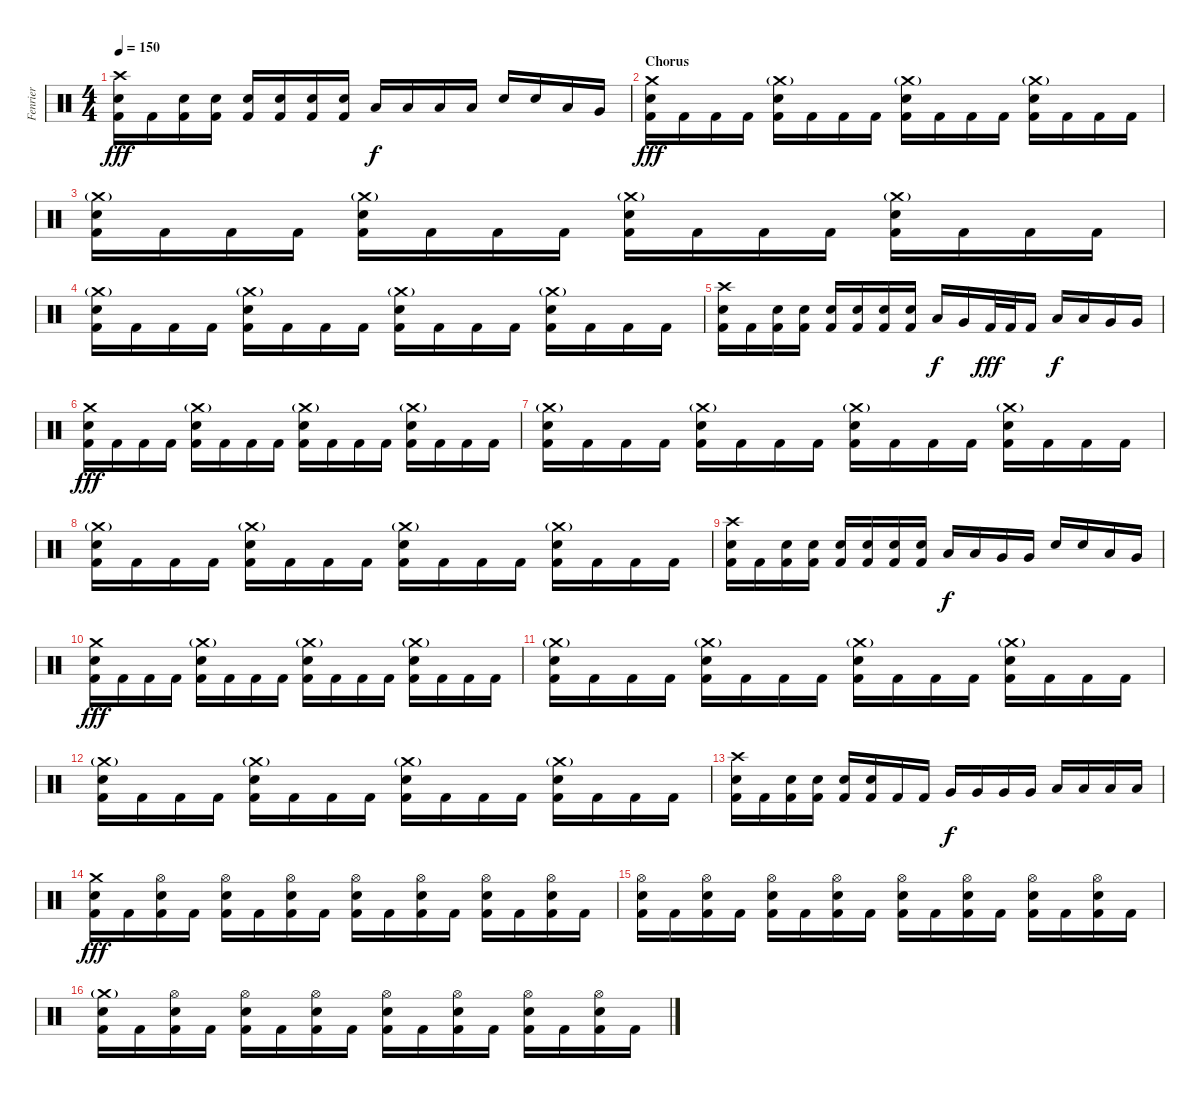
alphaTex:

\track ("Fenrier" "Fenrier") {instrument percussion}
\staff {score}
\articulation defaults
\ts (4 4)
\tempo 150
\clef neutral
\ks c
("Crash high (hit)" "Electric Snare (hit)" "Kick (hit) 2").16{dy fff} "Kick (hit) 2".16 ("Electric Snare (hit)" "Kick (hit) 2").16 ("Electric Snare (hit)" "Kick (hit) 2").16 ("Electric Snare (hit)" "Kick (hit) 2").16 ("Electric Snare (hit)" "Kick (hit) 2").16 ("Electric Snare (hit)" "Kick (hit) 2").16 ("Electric Snare (hit)" "Kick (hit) 2").16 "Low Tom (hit)".16{dy f} "Low Tom (hit)".16 "Low Tom (hit)".16 "Low Tom (hit)".16 "Electric Snare (hit)".16 "Electric Snare (hit)".16 "Low Tom (hit)".16 "Very Low Tom (hit)".16 |
\section ("" "Chorus")
("Crash medium (hit)" "Electric Snare (hit)" "Kick (hit) 2").16{dy fff} "Kick (hit) 2".16 "Kick (hit) 2".16 "Kick (hit) 2".16 ("Crash medium (hit)"{g} "Electric Snare (hit)" "Kick (hit) 2").16 "Kick (hit) 2".16 "Kick (hit) 2".16 "Kick (hit) 2".16 ("Crash medium (hit)"{g} "Electric Snare (hit)" "Kick (hit) 2").16 "Kick (hit) 2".16 "Kick (hit) 2".16 "Kick (hit) 2".16 ("Crash medium (hit)"{g} "Electric Snare (hit)" "Kick (hit) 2").16 "Kick (hit) 2".16 "Kick (hit) 2".16 "Kick (hit) 2".16 |
("Crash medium (hit)"{g} "Electric Snare (hit)" "Kick (hit) 2").16 "Kick (hit) 2".16 "Kick (hit) 2".16 "Kick (hit) 2".16 ("Crash medium (hit)"{g} "Electric Snare (hit)" "Kick (hit) 2").16 "Kick (hit) 2".16 "Kick (hit) 2".16 "Kick (hit) 2".16 ("Crash medium (hit)"{g} "Electric Snare (hit)" "Kick (hit) 2").16 "Kick (hit) 2".16 "Kick (hit) 2".16 "Kick (hit) 2".16 ("Crash medium (hit)"{g} "Electric Snare (hit)" "Kick (hit) 2").16 "Kick (hit) 2".16 "Kick (hit) 2".16 "Kick (hit) 2".16 |
("Crash medium (hit)"{g} "Electric Snare (hit)" "Kick (hit) 2").16 "Kick (hit) 2".16 "Kick (hit) 2".16 "Kick (hit) 2".16 ("Crash medium (hit)"{g} "Electric Snare (hit)" "Kick (hit) 2").16 "Kick (hit) 2".16 "Kick (hit) 2".16 "Kick (hit) 2".16 ("Crash medium (hit)"{g} "Electric Snare (hit)" "Kick (hit) 2").16 "Kick (hit) 2".16 "Kick (hit) 2".16 "Kick (hit) 2".16 ("Crash medium (hit)"{g} "Electric Snare (hit)" "Kick (hit) 2").16 "Kick (hit) 2".16 "Kick (hit) 2".16 "Kick (hit) 2".16 |
("Crash high (hit)" "Electric Snare (hit)" "Kick (hit) 2").16 "Kick (hit) 2".16 ("Electric Snare (hit)" "Kick (hit) 2").16 ("Electric Snare (hit)" "Kick (hit) 2").16 ("Electric Snare (hit)" "Kick (hit) 2").16 ("Electric Snare (hit)" "Kick (hit) 2").16 ("Electric Snare (hit)" "Kick (hit) 2").16 ("Electric Snare (hit)" "Kick (hit) 2").16 "Low Tom (hit)".16{dy f} "Very Low Tom (hit)".16 "Kick (hit) 2".32{dy fff} "Kick (hit) 2".32 "Kick (hit) 2".16 "Low Tom (hit)".16{dy f} "Low Tom (hit)".16 "Very Low Tom (hit)".16 "Very Low Tom (hit)".16 |
("Crash medium (hit)" "Electric Snare (hit)" "Kick (hit) 2").16{dy fff} "Kick (hit) 2".16 "Kick (hit) 2".16 "Kick (hit) 2".16 ("Crash medium (hit)"{g} "Electric Snare (hit)" "Kick (hit) 2").16 "Kick (hit) 2".16 "Kick (hit) 2".16 "Kick (hit) 2".16 ("Crash medium (hit)"{g} "Electric Snare (hit)" "Kick (hit) 2").16 "Kick (hit) 2".16 "Kick (hit) 2".16 "Kick (hit) 2".16 ("Crash medium (hit)"{g} "Electric Snare (hit)" "Kick (hit) 2").16 "Kick (hit) 2".16 "Kick (hit) 2".16 "Kick (hit) 2".16 |
("Crash medium (hit)"{g} "Electric Snare (hit)" "Kick (hit) 2").16 "Kick (hit) 2".16 "Kick (hit) 2".16 "Kick (hit) 2".16 ("Crash medium (hit)"{g} "Electric Snare (hit)" "Kick (hit) 2").16 "Kick (hit) 2".16 "Kick (hit) 2".16 "Kick (hit) 2".16 ("Crash medium (hit)"{g} "Electric Snare (hit)" "Kick (hit) 2").16 "Kick (hit) 2".16 "Kick (hit) 2".16 "Kick (hit) 2".16 ("Crash medium (hit)"{g} "Electric Snare (hit)" "Kick (hit) 2").16 "Kick (hit) 2".16 "Kick (hit) 2".16 "Kick (hit) 2".16 |
("Crash medium (hit)"{g} "Electric Snare (hit)" "Kick (hit) 2").16 "Kick (hit) 2".16 "Kick (hit) 2".16 "Kick (hit) 2".16 ("Crash medium (hit)"{g} "Electric Snare (hit)" "Kick (hit) 2").16 "Kick (hit) 2".16 "Kick (hit) 2".16 "Kick (hit) 2".16 ("Crash medium (hit)"{g} "Electric Snare (hit)" "Kick (hit) 2").16 "Kick (hit) 2".16 "Kick (hit) 2".16 "Kick (hit) 2".16 ("Crash medium (hit)"{g} "Electric Snare (hit)" "Kick (hit) 2").16 "Kick (hit) 2".16 "Kick (hit) 2".16 "Kick (hit) 2".16 |
("Crash high (hit)" "Electric Snare (hit)" "Kick (hit) 2").16 "Kick (hit) 2".16 ("Electric Snare (hit)" "Kick (hit) 2").16 ("Electric Snare (hit)" "Kick (hit) 2").16 ("Electric Snare (hit)" "Kick (hit) 2").16 ("Electric Snare (hit)" "Kick (hit) 2").16 ("Electric Snare (hit)" "Kick (hit) 2").16 ("Electric Snare (hit)" "Kick (hit) 2").16 "Low Tom (hit)".16{dy f} "Low Tom (hit)".16 "Very Low Tom (hit)".16 "Very Low Tom (hit)".16 "Electric Snare (hit)".16 "Electric Snare (hit)".16 "Low Tom (hit)".16 "Very Low Tom (hit)".16 |
("Crash medium (hit)" "Electric Snare (hit)" "Kick (hit) 2").16{dy fff} "Kick (hit) 2".16 "Kick (hit) 2".16 "Kick (hit) 2".16 ("Crash medium (hit)"{g} "Electric Snare (hit)" "Kick (hit) 2").16 "Kick (hit) 2".16 "Kick (hit) 2".16 "Kick (hit) 2".16 ("Crash medium (hit)"{g} "Electric Snare (hit)" "Kick (hit) 2").16 "Kick (hit) 2".16 "Kick (hit) 2".16 "Kick (hit) 2".16 ("Crash medium (hit)"{g} "Electric Snare (hit)" "Kick (hit) 2").16 "Kick (hit) 2".16 "Kick (hit) 2".16 "Kick (hit) 2".16 |
("Crash medium (hit)"{g} "Electric Snare (hit)" "Kick (hit) 2").16 "Kick (hit) 2".16 "Kick (hit) 2".16 "Kick (hit) 2".16 ("Crash medium (hit)"{g} "Electric Snare (hit)" "Kick (hit) 2").16 "Kick (hit) 2".16 "Kick (hit) 2".16 "Kick (hit) 2".16 ("Crash medium (hit)"{g} "Electric Snare (hit)" "Kick (hit) 2").16 "Kick (hit) 2".16 "Kick (hit) 2".16 "Kick (hit) 2".16 ("Crash medium (hit)"{g} "Electric Snare (hit)" "Kick (hit) 2").16 "Kick (hit) 2".16 "Kick (hit) 2".16 "Kick (hit) 2".16 |
("Crash medium (hit)"{g} "Electric Snare (hit)" "Kick (hit) 2").16 "Kick (hit) 2".16 "Kick (hit) 2".16 "Kick (hit) 2".16 ("Crash medium (hit)"{g} "Electric Snare (hit)" "Kick (hit) 2").16 "Kick (hit) 2".16 "Kick (hit) 2".16 "Kick (hit) 2".16 ("Crash medium (hit)"{g} "Electric Snare (hit)" "Kick (hit) 2").16 "Kick (hit) 2".16 "Kick (hit) 2".16 "Kick (hit) 2".16 ("Crash medium (hit)"{g} "Electric Snare (hit)" "Kick (hit) 2").16 "Kick (hit) 2".16 "Kick (hit) 2".16 "Kick (hit) 2".16 |
("Crash high (hit)" "Electric Snare (hit)" "Kick (hit) 2").16 "Kick (hit) 2".16 ("Electric Snare (hit)" "Kick (hit) 2").16 ("Electric Snare (hit)" "Kick (hit) 2").16 ("Electric Snare (hit)" "Kick (hit) 2").16 ("Electric Snare (hit)" "Kick (hit) 2").16 "Kick (hit) 2".16 "Kick (hit) 2".16 "Very Low Tom (hit)".16{dy f} "Very Low Tom (hit)".16 "Very Low Tom (hit)".16 "Very Low Tom (hit)".16 "Low Floor Tom (hit)".16 "Low Floor Tom (hit)".16 "Low Floor Tom (hit)".16 "Low Floor Tom (hit)".16 |
("Crash medium (hit)" "Electric Snare (hit)" "Kick (hit) 2").16{dy fff} "Kick (hit) 2".16 ("Hi-Hat (open)" "Electric Snare (hit)" "Kick (hit) 2").16 "Kick (hit) 2".16 ("Hi-Hat (open)" "Electric Snare (hit)" "Kick (hit) 2").16 "Kick (hit) 2".16 ("Hi-Hat (open)" "Electric Snare (hit)" "Kick (hit) 2").16 "Kick (hit) 2".16 ("Hi-Hat (open)" "Electric Snare (hit)" "Kick (hit) 2").16 "Kick (hit) 2".16 ("Hi-Hat (open)" "Electric Snare (hit)" "Kick (hit) 2").16 "Kick (hit) 2".16 ("Hi-Hat (open)" "Electric Snare (hit)" "Kick (hit) 2").16 "Kick (hit) 2".16 ("Hi-Hat (open)" "Electric Snare (hit)" "Kick (hit) 2").16 "Kick (hit) 2".16 |
("Hi-Hat (open)" "Electric Snare (hit)" "Kick (hit) 2").16 "Kick (hit) 2".16 ("Hi-Hat (open)" "Electric Snare (hit)" "Kick (hit) 2").16 "Kick (hit) 2".16 ("Hi-Hat (open)" "Electric Snare (hit)" "Kick (hit) 2").16 "Kick (hit) 2".16 ("Hi-Hat (open)" "Electric Snare (hit)" "Kick (hit) 2").16 "Kick (hit) 2".16 ("Hi-Hat (open)" "Electric Snare (hit)" "Kick (hit) 2").16 "Kick (hit) 2".16 ("Hi-Hat (open)" "Electric Snare (hit)" "Kick (hit) 2").16 "Kick (hit) 2".16 ("Hi-Hat (open)" "Electric Snare (hit)" "Kick (hit) 2").16 "Kick (hit) 2".16 ("Hi-Hat (open)" "Electric Snare (hit)" "Kick (hit) 2").16 "Kick (hit) 2".16 |
("Crash medium (hit)"{g} "Electric Snare (hit)" "Kick (hit) 2").16 "Kick (hit) 2".16 ("Hi-Hat (open)" "Electric Snare (hit)" "Kick (hit) 2").16 "Kick (hit) 2".16 ("Hi-Hat (open)" "Electric Snare (hit)" "Kick (hit) 2").16 "Kick (hit) 2".16 ("Hi-Hat (open)" "Electric Snare (hit)" "Kick (hit) 2").16 "Kick (hit) 2".16 ("Hi-Hat (open)" "Electric Snare (hit)" "Kick (hit) 2").16 "Kick (hit) 2".16 ("Hi-Hat (open)" "Electric Snare (hit)" "Kick (hit) 2").16 "Kick (hit) 2".16 ("Hi-Hat (open)" "Electric Snare (hit)" "Kick (hit) 2").16 "Kick (hit) 2".16 ("Hi-Hat (open)" "Electric Snare (hit)" "Kick (hit) 2").16 "Kick (hit) 2".16
